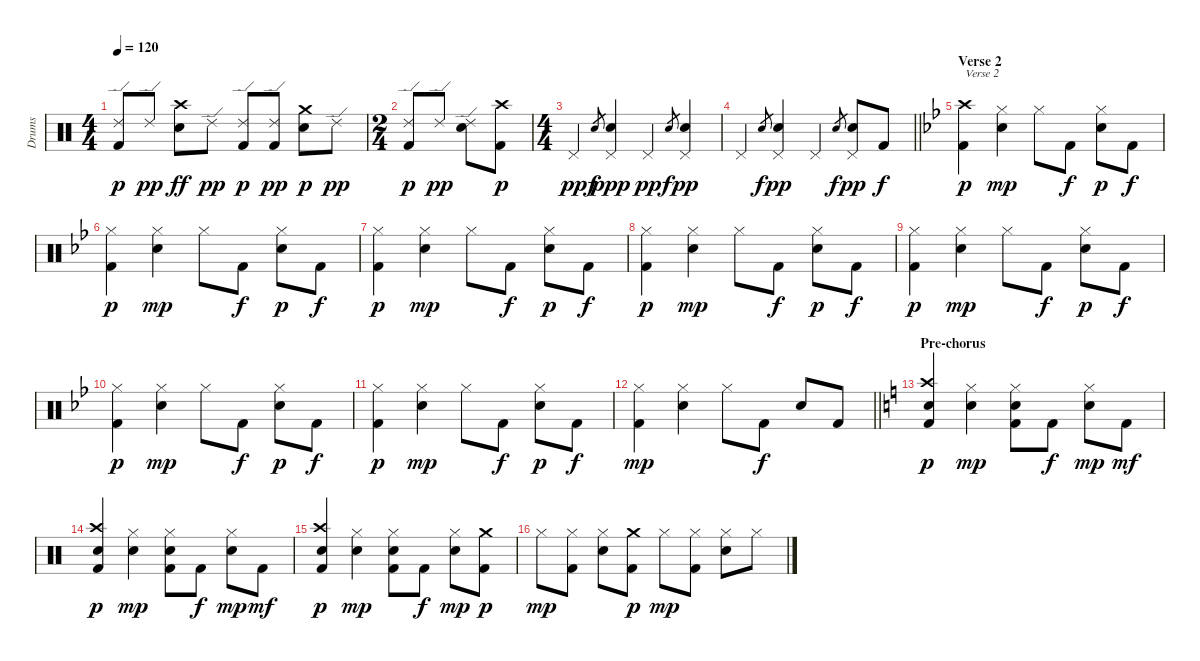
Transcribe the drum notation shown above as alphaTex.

\track ("Drums" "Drums") {instrument percussion}
\staff {score}
\articulation defaults
\ts (4 4)
\tempo 120
\clef neutral
\ks c
("Ride (edge) 2" "Kick (hit) 2").8{dy p} "Ride (edge) 2".8{dy pp} ("Crash high (hit)" "Electric Snare (hit)").8{dy ff} "Ride (edge) 2".8{dy pp} ("Kick (hit) 2" "Ride (edge) 2").8{dy p} ("Kick (hit) 2" "Ride (edge) 2").8{dy pp} ("Electric Snare (hit)" "Crash medium (hit)").8{dy p} "Ride (edge) 2".8{dy pp} |
\ts (2 4)
("Kick (hit) 2" "Ride (edge) 2").8{dy p} "Ride (edge) 2".8{dy pp} ("Electric Snare (hit)" "Ride (edge) 2").8 ("Crash high (hit)" "Kick (hit) 2").8{dy p} |
\ts (4 4)
"Pedal Hi-Hat (hit)".4{dy pp} "Electric Snare (hit)".8{gr dy f} ("Pedal Hi-Hat (hit)" "Electric Snare (hit)").4{dy ppp} "Pedal Hi-Hat (hit)".4{dy pp} "Electric Snare (hit)".8{gr dy f} ("Pedal Hi-Hat (hit)" "Electric Snare (hit)").4{dy pp} |
\barLineRight lightlight "Pedal Hi-Hat (hit)".4 "Electric Snare (hit)".8{gr dy f}
("Pedal Hi-Hat (hit)" "Electric Snare (hit)").4{dy pp} "Pedal Hi-Hat (hit)".4 "Electric Snare (hit)".8{gr dy f} ("Pedal Hi-Hat (hit)" "Electric Snare (hit)").8{dy pp} "Kick (hit) 2".8{dy f} |
\section ("" "Verse 2")
\ks bb
("Kick (hit) 2" "Crash high (hit)").4{txt "Verse 2" dy p} ("Electric Snare (hit)" "Hi-Hat (closed)").4{dy mp} "Hi-Hat (closed)".8 "Kick (hit) 2".8{dy f} ("Electric Snare (hit)" "Hi-Hat (closed)").8{dy p} "Kick (hit) 2".8{dy f} |
("Kick (hit) 2" "Hi-Hat (closed)").4{dy p} ("Electric Snare (hit)" "Hi-Hat (closed)").4{dy mp} "Hi-Hat (closed)".8 "Kick (hit) 2".8{dy f} ("Electric Snare (hit)" "Hi-Hat (closed)").8{dy p} "Kick (hit) 2".8{dy f} |
("Kick (hit) 2" "Hi-Hat (closed)").4{dy p} ("Electric Snare (hit)" "Hi-Hat (closed)").4{dy mp} "Hi-Hat (closed)".8 "Kick (hit) 2".8{dy f} ("Electric Snare (hit)" "Hi-Hat (closed)").8{dy p} "Kick (hit) 2".8{dy f} |
("Kick (hit) 2" "Hi-Hat (closed)").4{dy p} ("Electric Snare (hit)" "Hi-Hat (closed)").4{dy mp} "Hi-Hat (closed)".8 "Kick (hit) 2".8{dy f} ("Electric Snare (hit)" "Hi-Hat (closed)").8{dy p} "Kick (hit) 2".8{dy f} |
("Kick (hit) 2" "Hi-Hat (closed)").4{dy p} ("Electric Snare (hit)" "Hi-Hat (closed)").4{dy mp} "Hi-Hat (closed)".8 "Kick (hit) 2".8{dy f} ("Electric Snare (hit)" "Hi-Hat (closed)").8{dy p} "Kick (hit) 2".8{dy f} |
("Kick (hit) 2" "Hi-Hat (closed)").4{dy p} ("Electric Snare (hit)" "Hi-Hat (closed)").4{dy mp} "Hi-Hat (closed)".8 "Kick (hit) 2".8{dy f} ("Electric Snare (hit)" "Hi-Hat (closed)").8{dy p} "Kick (hit) 2".8{dy f} |
("Kick (hit) 2" "Hi-Hat (closed)").4{dy p} ("Electric Snare (hit)" "Hi-Hat (closed)").4{dy mp} "Hi-Hat (closed)".8 "Kick (hit) 2".8{dy f} ("Electric Snare (hit)" "Hi-Hat (closed)").8{dy p} "Kick (hit) 2".8{dy f} |
\barLineRight lightlight
("Kick (hit) 2" "Hi-Hat (closed)").4{dy mp} ("Electric Snare (hit)" "Hi-Hat (closed)").4 "Hi-Hat (closed)".8 "Kick (hit) 2".8{dy f} "Electric Snare (hit)".8 "Kick (hit) 2".8 |
\section ("" "Pre-chorus")
\ks c
("Kick (hit) 2" "Crash high (hit)" "Electric Snare (hit)").4{dy p} ("Electric Snare (hit)" "Hi-Hat (closed)").4{dy mp} ("Kick (hit) 2" "Hi-Hat (closed)" "Electric Snare (hit)").8 "Kick (hit) 2".8{dy f} ("Electric Snare (hit)" "Hi-Hat (closed)").8{dy mp} "Kick (hit) 2".8{dy mf} |
("Kick (hit) 2" "Crash high (hit)" "Electric Snare (hit)").4{dy p} ("Electric Snare (hit)" "Hi-Hat (closed)").4{dy mp} ("Kick (hit) 2" "Hi-Hat (closed)" "Electric Snare (hit)").8 "Kick (hit) 2".8{dy f} ("Electric Snare (hit)" "Hi-Hat (closed)").8{dy mp} "Kick (hit) 2".8{dy mf} |
("Kick (hit) 2" "Crash high (hit)" "Electric Snare (hit)").4{dy p} ("Electric Snare (hit)" "Hi-Hat (closed)").4{dy mp} ("Kick (hit) 2" "Hi-Hat (closed)" "Electric Snare (hit)").8 "Kick (hit) 2".8{dy f} ("Electric Snare (hit)" "Hi-Hat (closed)").8{dy mp} ("Kick (hit) 2" "Crash medium (hit)").8{dy p} |
"Hi-Hat (closed)".8{dy mp} ("Hi-Hat (closed)" "Kick (hit) 2").8 ("Hi-Hat (closed)" "Electric Snare (hit)").8 ("Crash medium (hit)" "Kick (hit) 2").8{dy p} "Hi-Hat (closed)".8{dy mp} ("Hi-Hat (closed)" "Kick (hit) 2").8 ("Hi-Hat (closed)" "Electric Snare (hit)").8 "Hi-Hat (closed)".8
